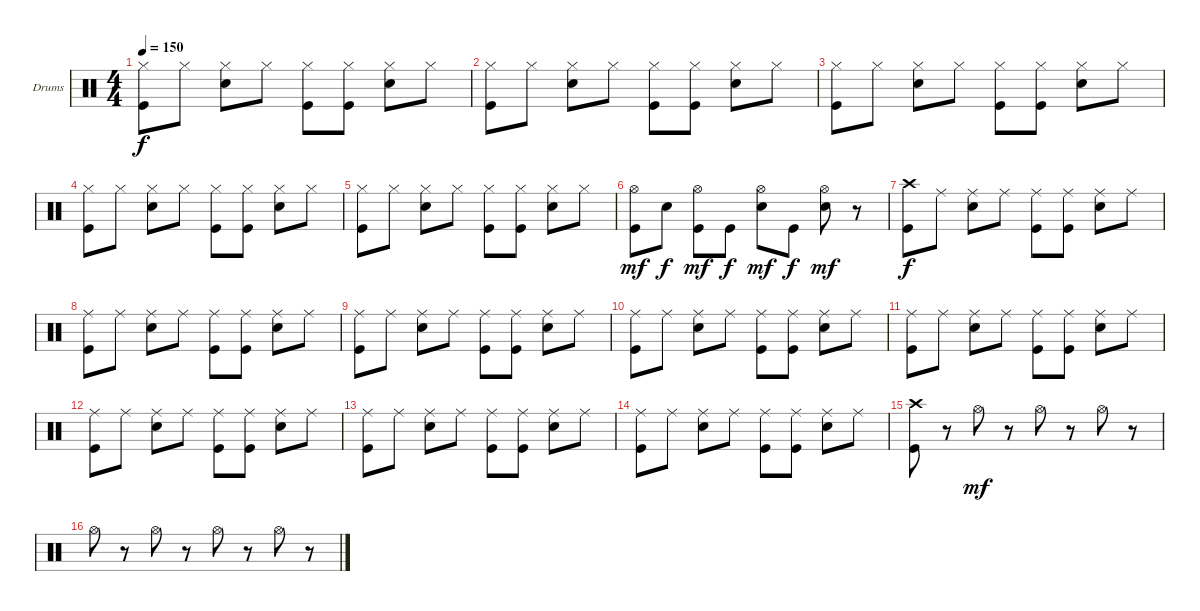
\bracketExtendMode groupsimilarinstruments
\firstSystemTrackNameOrientation horizontal
\otherSystemsTrackNameOrientation horizontal
\track ("Drumkit" "Drums") {instrument percussion}
\staff {score}
\articulation defaults
\ts (4 4)
\tempo 150
\clef neutral
\ks c
("Hi-Hat (closed)" "Kick (hit)").8{dy f} "Hi-Hat (closed)".8 ("Hi-Hat (closed)" "Snare (hit) 2").8 "Hi-Hat (closed)".8 ("Hi-Hat (closed)" "Kick (hit)").8 ("Hi-Hat (closed)" "Kick (hit)").8 ("Hi-Hat (closed)" "Snare (hit) 2").8 "Hi-Hat (closed)".8 |
("Hi-Hat (closed)" "Kick (hit)").8 "Hi-Hat (closed)".8 ("Hi-Hat (closed)" "Snare (hit) 2").8 "Hi-Hat (closed)".8 ("Hi-Hat (closed)" "Kick (hit)").8 ("Hi-Hat (closed)" "Kick (hit)").8 ("Hi-Hat (closed)" "Snare (hit) 2").8 "Hi-Hat (closed)".8 |
("Hi-Hat (closed)" "Kick (hit)").8 "Hi-Hat (closed)".8 ("Hi-Hat (closed)" "Snare (hit) 2").8 "Hi-Hat (closed)".8 ("Hi-Hat (closed)" "Kick (hit)").8 ("Hi-Hat (closed)" "Kick (hit)").8 ("Hi-Hat (closed)" "Snare (hit) 2").8 "Hi-Hat (closed)".8 |
("Hi-Hat (closed)" "Kick (hit)").8 "Hi-Hat (closed)".8 ("Hi-Hat (closed)" "Snare (hit) 2").8 "Hi-Hat (closed)".8 ("Hi-Hat (closed)" "Kick (hit)").8 ("Hi-Hat (closed)" "Kick (hit)").8 ("Hi-Hat (closed)" "Snare (hit) 2").8 "Hi-Hat (closed)".8 |
("Hi-Hat (closed)" "Kick (hit)").8 "Hi-Hat (closed)".8 ("Hi-Hat (closed)" "Snare (hit) 2").8 "Hi-Hat (closed)".8 ("Hi-Hat (closed)" "Kick (hit)").8 ("Hi-Hat (closed)" "Kick (hit)").8 ("Hi-Hat (closed)" "Snare (hit) 2").8 "Hi-Hat (closed)".8 |
("Hi-Hat (open)" "Kick (hit)").8{dy mf} "Snare (hit) 2".8{dy f} ("Hi-Hat (open)" "Kick (hit)").8{dy mf} "Kick (hit)".8{dy f} ("Hi-Hat (open)" "Snare (hit) 2").8{dy mf} "Kick (hit)".8{dy f} ("Hi-Hat (open)" "Snare (hit) 2").8{dy mf} r.8 |
("Crash high (hit)" "Kick (hit)").8{dy f} "Ride (middle)".8 ("Ride (middle)" "Snare (hit) 2").8 "Ride (middle)".8 ("Ride (middle)" "Kick (hit)").8 ("Ride (middle)" "Kick (hit)").8 ("Ride (middle)" "Snare (hit) 2").8 "Ride (middle)".8 |
("Ride (middle)" "Kick (hit)").8 "Ride (middle)".8 ("Ride (middle)" "Snare (hit) 2").8 "Ride (middle)".8 ("Ride (middle)" "Kick (hit)").8 ("Ride (middle)" "Kick (hit)").8 ("Ride (middle)" "Snare (hit) 2").8 "Ride (middle)".8 |
("Ride (middle)" "Kick (hit)").8 "Ride (middle)".8 ("Ride (middle)" "Snare (hit) 2").8 "Ride (middle)".8 ("Ride (middle)" "Kick (hit)").8 ("Ride (middle)" "Kick (hit)").8 ("Ride (middle)" "Snare (hit) 2").8 "Ride (middle)".8 |
("Ride (middle)" "Kick (hit)").8 "Ride (middle)".8 ("Ride (middle)" "Snare (hit) 2").8 "Ride (middle)".8 ("Ride (middle)" "Kick (hit)").8 ("Ride (middle)" "Kick (hit)").8 ("Ride (middle)" "Snare (hit) 2").8 "Ride (middle)".8 |
("Ride (middle)" "Kick (hit)").8 "Ride (middle)".8 ("Ride (middle)" "Snare (hit) 2").8 "Ride (middle)".8 ("Ride (middle)" "Kick (hit)").8 ("Ride (middle)" "Kick (hit)").8 ("Ride (middle)" "Snare (hit) 2").8 "Ride (middle)".8 |
("Ride (middle)" "Kick (hit)").8 "Ride (middle)".8 ("Ride (middle)" "Snare (hit) 2").8 "Ride (middle)".8 ("Ride (middle)" "Kick (hit)").8 ("Ride (middle)" "Kick (hit)").8 ("Ride (middle)" "Snare (hit) 2").8 "Ride (middle)".8 |
("Ride (middle)" "Kick (hit)").8 "Ride (middle)".8 ("Ride (middle)" "Snare (hit) 2").8 "Ride (middle)".8 ("Ride (middle)" "Kick (hit)").8 ("Ride (middle)" "Kick (hit)").8 ("Ride (middle)" "Snare (hit) 2").8 "Ride (middle)".8 |
("Ride (middle)" "Kick (hit)").8 "Ride (middle)".8 ("Ride (middle)" "Snare (hit) 2").8 "Ride (middle)".8 ("Ride (middle)" "Kick (hit)").8 ("Ride (middle)" "Kick (hit)").8 ("Ride (middle)" "Snare (hit) 2").8 "Ride (middle)".8 |
("Crash high (hit)" "Kick (hit)").8 r.8 "Hi-Hat (open)".8{dy mf} r.8 "Hi-Hat (open)".8 r.8 "Hi-Hat (open)".8 r.8 |
"Hi-Hat (open)".8 r.8 "Hi-Hat (open)".8 r.8 "Hi-Hat (open)".8 r.8 "Hi-Hat (open)".8 r.8
